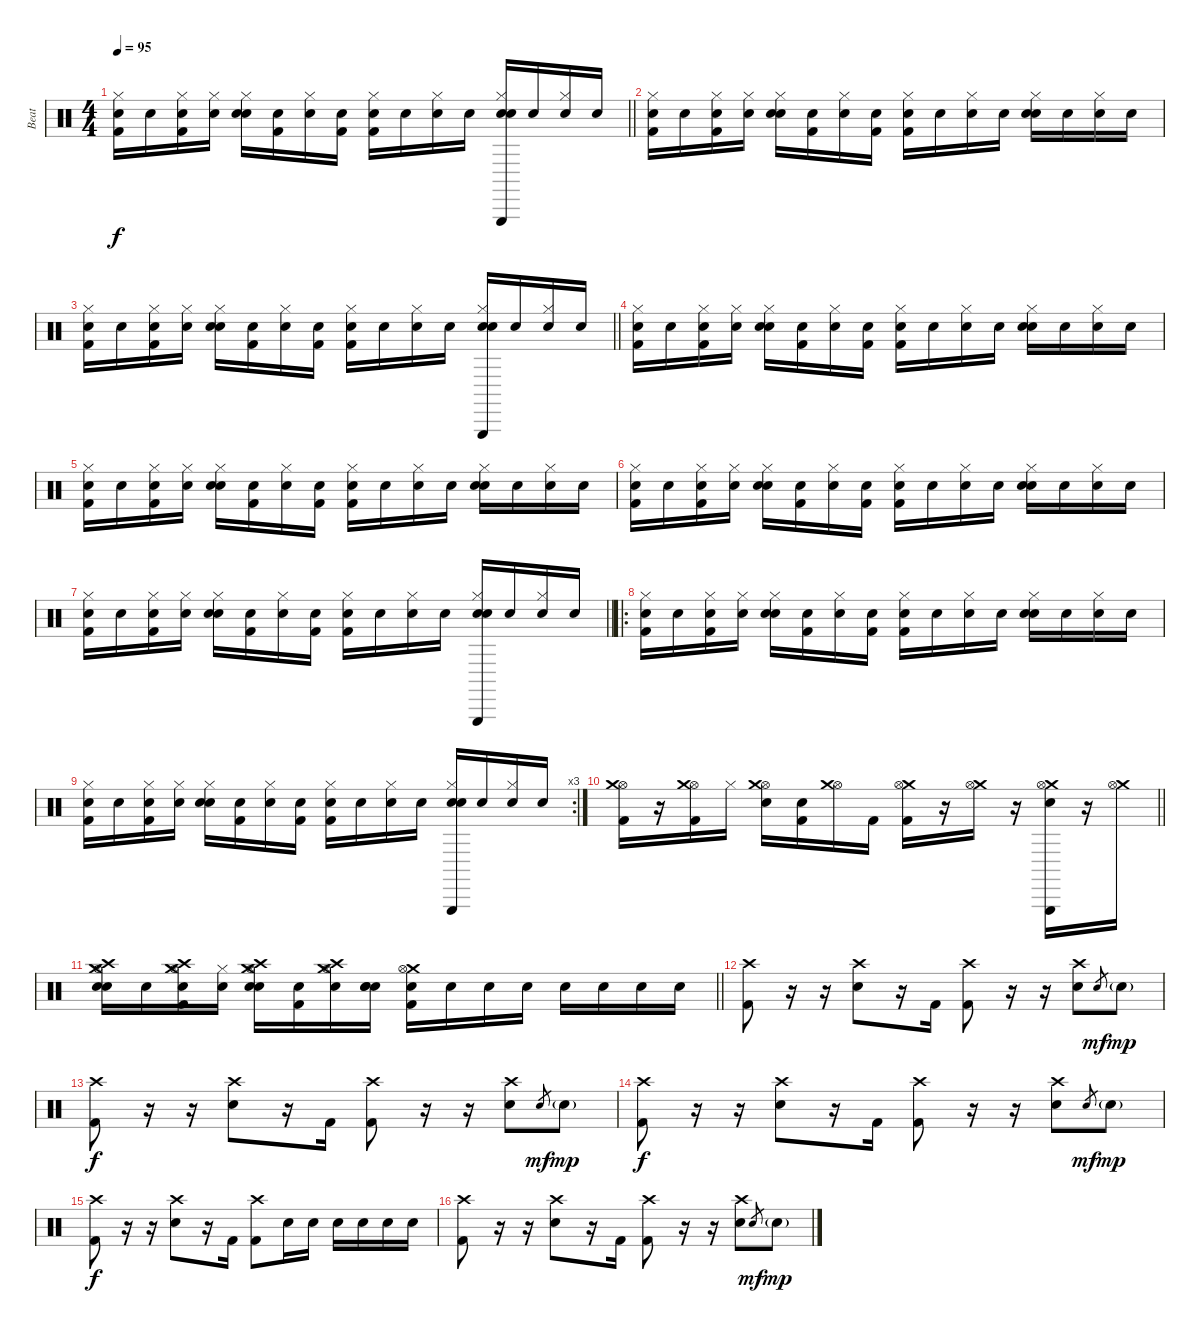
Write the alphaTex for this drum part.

\track ("Beat" "Beat") {instrument percussion}
\staff {score}
\articulation defaults
\ts (4 4)
\tempo 95
\clef neutral
\barLineRight lightlight
\ks c
("Snare (hit)"{x} "Kick (hit) 2" "Hi-Hat (closed)").16{dy f} "Snare (hit)"{x}.16 ("Snare (hit)"{x} "Kick (hit) 2" "Hi-Hat (closed)").16 ("Snare (hit)"{x} "Hi-Hat (closed)").16 ("Snare (hit)"{x} "Electric Snare (hit)" "Hi-Hat (closed)").16 ("Snare (hit)"{x} "Kick (hit) 2").16 ("Snare (hit)"{x} "Hi-Hat (closed)").16 ("Snare (hit)"{x} "Kick (hit) 2").16 ("Snare (hit)"{x} "Kick (hit) 2" "Hi-Hat (closed)").16 "Snare (hit)"{x}.16 ("Snare (hit)"{x} "Hi-Hat (closed)").16 "Snare (hit)"{x}.16 ("Snare (hit)"{x} "Triangle (hit)" "Electric Snare (hit)" "Hi-Hat (closed)").16 "Snare (hit)"{x}.16 ("Snare (hit)"{x} "Hi-Hat (closed)").16 "Snare (hit)"{x}.16 |
("Snare (hit)"{x} "Kick (hit) 2" "Hi-Hat (closed)").16 "Snare (hit)"{x}.16 ("Snare (hit)"{x} "Kick (hit) 2" "Hi-Hat (closed)").16 ("Snare (hit)"{x} "Hi-Hat (closed)").16 ("Snare (hit)"{x} "Electric Snare (hit)" "Hi-Hat (closed)").16 ("Snare (hit)"{x} "Kick (hit) 2").16 ("Snare (hit)"{x} "Hi-Hat (closed)").16 ("Snare (hit)"{x} "Kick (hit) 2").16 ("Snare (hit)"{x} "Kick (hit) 2" "Hi-Hat (closed)").16 "Snare (hit)"{x}.16 ("Snare (hit)"{x} "Hi-Hat (closed)").16 "Snare (hit)"{x}.16 ("Snare (hit)"{x} "Electric Snare (hit)" "Hi-Hat (closed)").16 "Snare (hit)"{x}.16 ("Snare (hit)"{x} "Hi-Hat (closed)").16 "Snare (hit)"{x}.16 |
\barLineRight lightlight
("Snare (hit)"{x} "Kick (hit) 2" "Hi-Hat (closed)").16 "Snare (hit)"{x}.16 ("Snare (hit)"{x} "Kick (hit) 2" "Hi-Hat (closed)").16 ("Snare (hit)"{x} "Hi-Hat (closed)").16 ("Snare (hit)"{x} "Electric Snare (hit)" "Hi-Hat (closed)").16 ("Snare (hit)"{x} "Kick (hit) 2").16 ("Snare (hit)"{x} "Hi-Hat (closed)").16 ("Snare (hit)"{x} "Kick (hit) 2").16 ("Snare (hit)"{x} "Kick (hit) 2" "Hi-Hat (closed)").16 "Snare (hit)"{x}.16 ("Snare (hit)"{x} "Hi-Hat (closed)").16 "Snare (hit)"{x}.16 ("Snare (hit)"{x} "Triangle (hit)" "Electric Snare (hit)" "Hi-Hat (closed)").16 "Snare (hit)"{x}.16 ("Snare (hit)"{x} "Hi-Hat (closed)").16 "Snare (hit)"{x}.16 |
("Snare (hit)"{x} "Kick (hit) 2" "Hi-Hat (closed)").16 "Snare (hit)"{x}.16 ("Snare (hit)"{x} "Kick (hit) 2" "Hi-Hat (closed)").16 ("Snare (hit)"{x} "Hi-Hat (closed)").16 ("Snare (hit)"{x} "Electric Snare (hit)" "Hi-Hat (closed)").16 ("Snare (hit)"{x} "Kick (hit) 2").16 ("Snare (hit)"{x} "Hi-Hat (closed)").16 ("Snare (hit)"{x} "Kick (hit) 2").16 ("Snare (hit)"{x} "Kick (hit) 2" "Hi-Hat (closed)").16 "Snare (hit)"{x}.16 ("Snare (hit)"{x} "Hi-Hat (closed)").16 "Snare (hit)"{x}.16 ("Snare (hit)"{x} "Electric Snare (hit)" "Hi-Hat (closed)").16 "Snare (hit)"{x}.16 ("Snare (hit)"{x} "Hi-Hat (closed)").16 "Snare (hit)"{x}.16 |
("Snare (hit)"{x} "Kick (hit) 2" "Hi-Hat (closed)").16 "Snare (hit)"{x}.16 ("Snare (hit)"{x} "Kick (hit) 2" "Hi-Hat (closed)").16 ("Snare (hit)"{x} "Hi-Hat (closed)").16 ("Snare (hit)"{x} "Electric Snare (hit)" "Hi-Hat (closed)").16 ("Snare (hit)"{x} "Kick (hit) 2").16 ("Snare (hit)"{x} "Hi-Hat (closed)").16 ("Snare (hit)"{x} "Kick (hit) 2").16 ("Snare (hit)"{x} "Kick (hit) 2" "Hi-Hat (closed)").16 "Snare (hit)"{x}.16 ("Snare (hit)"{x} "Hi-Hat (closed)").16 "Snare (hit)"{x}.16 ("Snare (hit)"{x} "Electric Snare (hit)" "Hi-Hat (closed)").16 "Snare (hit)"{x}.16 ("Snare (hit)"{x} "Hi-Hat (closed)").16 "Snare (hit)"{x}.16 |
("Snare (hit)"{x} "Kick (hit) 2" "Hi-Hat (closed)").16 "Snare (hit)"{x}.16 ("Snare (hit)"{x} "Kick (hit) 2" "Hi-Hat (closed)").16 ("Snare (hit)"{x} "Hi-Hat (closed)").16 ("Snare (hit)"{x} "Electric Snare (hit)" "Hi-Hat (closed)").16 ("Snare (hit)"{x} "Kick (hit) 2").16 ("Snare (hit)"{x} "Hi-Hat (closed)").16 ("Snare (hit)"{x} "Kick (hit) 2").16 ("Snare (hit)"{x} "Kick (hit) 2" "Hi-Hat (closed)").16 "Snare (hit)"{x}.16 ("Snare (hit)"{x} "Hi-Hat (closed)").16 "Snare (hit)"{x}.16 ("Snare (hit)"{x} "Electric Snare (hit)" "Hi-Hat (closed)").16 "Snare (hit)"{x}.16 ("Snare (hit)"{x} "Hi-Hat (closed)").16 "Snare (hit)"{x}.16 |
\barLineRight lightlight
("Snare (hit)"{x} "Kick (hit) 2" "Hi-Hat (closed)").16 "Snare (hit)"{x}.16 ("Snare (hit)"{x} "Kick (hit) 2" "Hi-Hat (closed)").16 ("Snare (hit)"{x} "Hi-Hat (closed)").16 ("Snare (hit)"{x} "Electric Snare (hit)" "Hi-Hat (closed)").16 ("Snare (hit)"{x} "Kick (hit) 2").16 ("Snare (hit)"{x} "Hi-Hat (closed)").16 ("Snare (hit)"{x} "Kick (hit) 2").16 ("Snare (hit)"{x} "Kick (hit) 2" "Hi-Hat (closed)").16 "Snare (hit)"{x}.16 ("Snare (hit)"{x} "Hi-Hat (closed)").16 "Snare (hit)"{x}.16 ("Snare (hit)"{x} "Triangle (hit)" "Electric Snare (hit)" "Hi-Hat (closed)").16 "Snare (hit)"{x}.16 ("Snare (hit)"{x} "Hi-Hat (closed)").16 "Snare (hit)"{x}.16 |
\ro
("Snare (hit)"{x} "Kick (hit) 2" "Hi-Hat (closed)").16 "Snare (hit)"{x}.16 ("Snare (hit)"{x} "Kick (hit) 2" "Hi-Hat (closed)").16 ("Snare (hit)"{x} "Hi-Hat (closed)").16 ("Snare (hit)"{x} "Electric Snare (hit)" "Hi-Hat (closed)").16 ("Snare (hit)"{x} "Kick (hit) 2").16 ("Snare (hit)"{x} "Hi-Hat (closed)").16 ("Snare (hit)"{x} "Kick (hit) 2").16 ("Snare (hit)"{x} "Kick (hit) 2" "Hi-Hat (closed)").16 "Snare (hit)"{x}.16 ("Snare (hit)"{x} "Hi-Hat (closed)").16 "Snare (hit)"{x}.16 ("Snare (hit)"{x} "Electric Snare (hit)" "Hi-Hat (closed)").16 "Snare (hit)"{x}.16 ("Snare (hit)"{x} "Hi-Hat (closed)").16 "Snare (hit)"{x}.16 |
\rc 3
("Snare (hit)"{x} "Kick (hit) 2" "Hi-Hat (closed)").16 "Snare (hit)"{x}.16 ("Snare (hit)"{x} "Kick (hit) 2" "Hi-Hat (closed)").16 ("Snare (hit)"{x} "Hi-Hat (closed)").16 ("Snare (hit)"{x} "Electric Snare (hit)" "Hi-Hat (closed)").16 ("Snare (hit)"{x} "Kick (hit) 2").16 ("Snare (hit)"{x} "Hi-Hat (closed)").16 ("Snare (hit)"{x} "Kick (hit) 2").16 ("Snare (hit)"{x} "Kick (hit) 2" "Hi-Hat (closed)").16 "Snare (hit)"{x}.16 ("Snare (hit)"{x} "Hi-Hat (closed)").16 "Snare (hit)"{x}.16 ("Snare (hit)"{x} "Triangle (hit)" "Electric Snare (hit)" "Hi-Hat (closed)").16 "Snare (hit)"{x}.16 ("Snare (hit)"{x} "Hi-Hat (closed)").16 "Snare (hit)"{x}.16 |
\barLineRight lightlight
("Hi-Hat (open)" "Crash medium (hit)" "Kick (hit) 2").16 r.16 ("Hi-Hat (open)" "Crash medium (hit)" "Kick (hit) 2").16 "Hi-Hat (closed)".16 ("Hi-Hat (open)" "Crash medium (hit)" "Electric Snare (hit)").16 ("Snare (hit)" "Kick (hit) 2").16 ("Hi-Hat (open)" "Crash medium (hit)").16 "Kick (hit) 2".16 ("Crash medium (hit)" "Kick (hit) 2" "Hi-Hat (open)").16 r.16 ("Crash medium (hit)" "Hi-Hat (open)").16 r.16 ("Triangle (hit)" "Crash medium (hit)" "Electric Snare (hit)" "Hi-Hat (open)").16 r.16 ("Crash medium (hit)" "Hi-Hat (open)").16 |
\barLineRight lightlight
("Snare (hit)"{x} "Crash medium (hit)" "Crash high (hit)" "Electric Snare (hit)" "Hi-Hat (open)").16 "Snare (hit)"{x}.16 ("Snare (hit)"{x} "Crash medium (hit)" "Crash high (hit)" "Kick (hit) 2" "Hi-Hat (open)").16 ("Snare (hit)"{x} "Hi-Hat (closed)").16 ("Snare (hit)"{x} "Crash medium (hit)" "Crash high (hit)" "Electric Snare (hit)" "Hi-Hat (open)").16 ("Snare (hit)"{x} "Kick (hit) 2").16 ("Snare (hit)"{x} "Crash medium (hit)" "Crash high (hit)" "Hi-Hat (open)").16 ("Electric Snare (hit)" "Snare (hit) 2" "Electric Snare (hit)").16 ("Electric Snare (hit)" "Crash medium (hit)" "Kick (hit) 2" "Hi-Hat (open)").16 "Electric Snare (hit)".16 "Electric Snare (hit)".16 "Electric Snare (hit)".16 "Electric Snare (hit)".16 "Electric Snare (hit)".16 "Electric Snare (hit)".16 "Electric Snare (hit)".16 |
("Crash high (hit)" "Kick (hit) 2").8 r.16 r.16 ("Crash high (hit)" "Electric Snare (hit)").8 r.16 "Kick (hit) 2".16 ("Crash high (hit)" "Kick (hit) 2").8 r.16 r.16 ("Crash high (hit)" "Electric Snare (hit)").8 "Electric Snare (hit)".8{gr dy mf} "Electric Snare (hit)"{g}.8{dy mp} |
("Crash high (hit)" "Kick (hit) 2").8{dy f} r.16 r.16 ("Crash high (hit)" "Electric Snare (hit)").8 r.16 "Kick (hit) 2".16 ("Crash high (hit)" "Kick (hit) 2").8 r.16 r.16 ("Crash high (hit)" "Electric Snare (hit)").8 "Electric Snare (hit)".8{gr dy mf} "Electric Snare (hit)"{g}.8{dy mp} |
("Crash high (hit)" "Kick (hit) 2").8{dy f} r.16 r.16 ("Crash high (hit)" "Electric Snare (hit)").8 r.16 "Kick (hit) 2".16 ("Crash high (hit)" "Kick (hit) 2").8 r.16 r.16 ("Crash high (hit)" "Electric Snare (hit)").8 "Electric Snare (hit)".8{gr dy mf} "Electric Snare (hit)"{g}.8{dy mp} |
("Crash high (hit)" "Kick (hit) 2").8{dy f} r.16 r.16 ("Crash high (hit)" "Electric Snare (hit)").8 r.16 "Kick (hit) 2".16 ("Crash high (hit)" "Kick (hit) 2").8 "Electric Snare (hit)".16 "Electric Snare (hit)".16 "Electric Snare (hit)".16 "Electric Snare (hit)".16 "Electric Snare (hit)".16 "Electric Snare (hit)".16 |
("Crash high (hit)" "Kick (hit) 2").8 r.16 r.16 ("Crash high (hit)" "Electric Snare (hit)").8 r.16 "Kick (hit) 2".16 ("Crash high (hit)" "Kick (hit) 2").8 r.16 r.16 ("Crash high (hit)" "Electric Snare (hit)").8 "Electric Snare (hit)".8{gr dy mf} "Electric Snare (hit)"{g}.8{dy mp}
